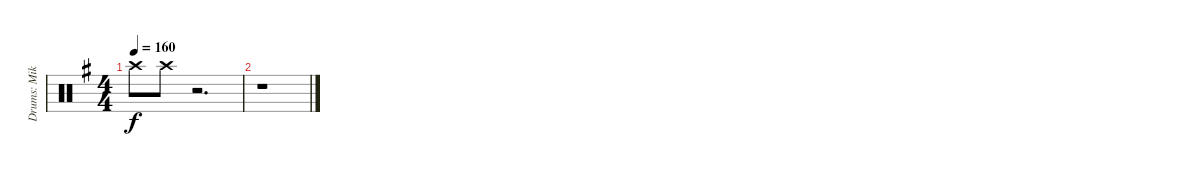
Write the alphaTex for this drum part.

\track ("Drums: Mikko Korsbäck" "Drums: Mik") {instrument percussion}
\staff {score}
\articulation defaults
\ts (4 4)
\tempo 160
\clef neutral
\ks eminor "Crash high (hit)".8{dy f} "Crash high (hit)".8
r.2{d} |
r.1
